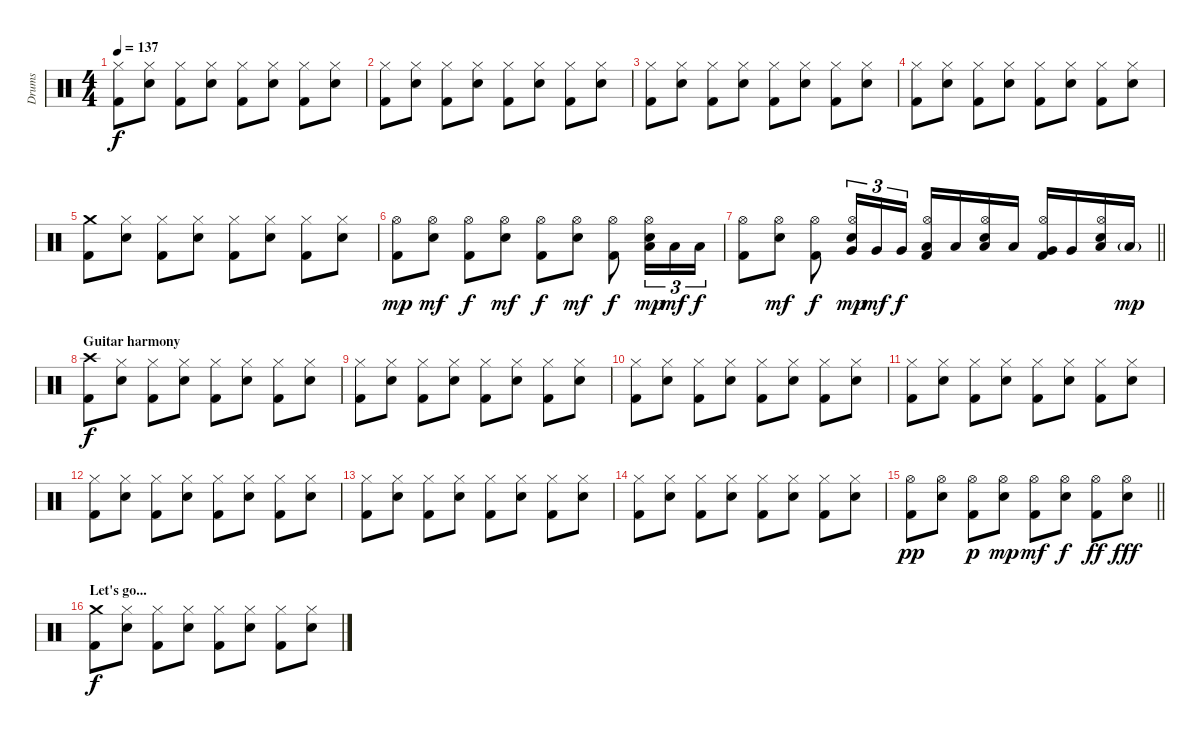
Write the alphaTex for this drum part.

\track ("Drums" "Drums") {instrument percussion}
\staff {score}
\articulation defaults
\ts (4 4)
\tempo 137
\clef neutral
\ks c
("Hi-Hat (closed)" "Kick (hit) 2").8{dy f} ("Hi-Hat (closed)" "Snare (hit) 2").8 ("Hi-Hat (closed)" "Kick (hit) 2").8 ("Hi-Hat (closed)" "Snare (hit) 2").8 ("Hi-Hat (closed)" "Kick (hit) 2").8 ("Hi-Hat (closed)" "Snare (hit) 2").8 ("Hi-Hat (closed)" "Kick (hit) 2").8 ("Hi-Hat (closed)" "Snare (hit) 2").8 |
("Hi-Hat (closed)" "Kick (hit) 2").8 ("Hi-Hat (closed)" "Snare (hit) 2").8 ("Hi-Hat (closed)" "Kick (hit) 2").8 ("Hi-Hat (closed)" "Snare (hit) 2").8 ("Hi-Hat (closed)" "Kick (hit) 2").8 ("Hi-Hat (closed)" "Snare (hit) 2").8 ("Hi-Hat (closed)" "Kick (hit) 2").8 ("Hi-Hat (closed)" "Snare (hit) 2").8 |
("Hi-Hat (closed)" "Kick (hit) 2").8 ("Hi-Hat (closed)" "Snare (hit) 2").8 ("Hi-Hat (closed)" "Kick (hit) 2").8 ("Hi-Hat (closed)" "Snare (hit) 2").8 ("Hi-Hat (closed)" "Kick (hit) 2").8 ("Hi-Hat (closed)" "Snare (hit) 2").8 ("Hi-Hat (closed)" "Kick (hit) 2").8 ("Hi-Hat (closed)" "Snare (hit) 2").8 |
("Hi-Hat (closed)" "Kick (hit) 2").8 ("Hi-Hat (closed)" "Snare (hit) 2").8 ("Hi-Hat (closed)" "Kick (hit) 2").8 ("Hi-Hat (closed)" "Snare (hit) 2").8 ("Hi-Hat (closed)" "Kick (hit) 2").8 ("Hi-Hat (closed)" "Snare (hit) 2").8 ("Hi-Hat (closed)" "Kick (hit) 2").8 ("Hi-Hat (closed)" "Snare (hit) 2").8 |
("Crash medium (hit)" "Kick (hit) 2").8 ("Hi-Hat (closed)" "Snare (hit) 2").8 ("Hi-Hat (closed)" "Kick (hit) 2").8 ("Hi-Hat (closed)" "Snare (hit) 2").8 ("Hi-Hat (closed)" "Kick (hit) 2").8 ("Hi-Hat (closed)" "Snare (hit) 2").8 ("Hi-Hat (closed)" "Kick (hit) 2").8 ("Hi-Hat (closed)" "Snare (hit) 2").8 |
("Hi-Hat (open)" "Kick (hit) 2").8{dy mp} ("Hi-Hat (open)" "Snare (hit) 2").8{dy mf} ("Hi-Hat (open)" "Kick (hit) 2").8{dy f} ("Hi-Hat (open)" "Snare (hit) 2").8{dy mf} ("Hi-Hat (open)" "Kick (hit) 2").8{dy f} ("Hi-Hat (open)" "Snare (hit) 2").8{dy mf} ("Hi-Hat (open)" "Kick (hit) 2").8{dy f} ("Hi-Hat (open)" "Low Floor Tom (hit)" "Snare (hit) 2").16{tu (3 2) dy mp} "Low Floor Tom (hit)".16{tu (3 2) dy mf} "Low Floor Tom (hit)".16{tu (3 2) dy f} |
\barLineRight lightlight
("Hi-Hat (open)" "Kick (hit) 2").8 ("Hi-Hat (open)" "Snare (hit) 2").8{dy mf} ("Hi-Hat (open)" "Kick (hit) 2").8{dy f} ("Hi-Hat (open)" "Very Low Tom (hit)" "Snare (hit) 2").16{tu (3 2) dy mp} "Very Low Tom (hit)".16{tu (3 2) dy mf} "Very Low Tom (hit)".16{tu (3 2) dy f} ("Hi-Hat (open)" "Low Tom (hit)" "Kick (hit) 2").16 "Low Tom (hit)".16 ("Hi-Hat (open)" "Low Tom (hit)" "Snare (hit) 2").16 "Low Tom (hit)".16 ("Hi-Hat (open)" "Very Low Tom (hit)" "Kick (hit) 2").16 "Very Low Tom (hit)".16 ("Hi-Hat (open)" "Low Floor Tom (hit)" "Snare (hit) 2").16 "Low Floor Tom (hit)"{g}.16{dy mp} |
\section ("" "Guitar harmony")
("Crash high (hit)" "Kick (hit) 2").8{dy f} ("Hi-Hat (closed)" "Snare (hit) 2").8 ("Hi-Hat (closed)" "Kick (hit) 2").8 ("Hi-Hat (closed)" "Snare (hit) 2").8 ("Hi-Hat (closed)" "Kick (hit) 2").8 ("Hi-Hat (closed)" "Snare (hit) 2").8 ("Hi-Hat (closed)" "Kick (hit) 2").8 ("Hi-Hat (closed)" "Snare (hit) 2").8 |
("Hi-Hat (closed)" "Kick (hit) 2").8 ("Hi-Hat (closed)" "Snare (hit) 2").8 ("Hi-Hat (closed)" "Kick (hit) 2").8 ("Hi-Hat (closed)" "Snare (hit) 2").8 ("Hi-Hat (closed)" "Kick (hit) 2").8 ("Hi-Hat (closed)" "Snare (hit) 2").8 ("Hi-Hat (closed)" "Kick (hit) 2").8 ("Hi-Hat (closed)" "Snare (hit) 2").8 |
("Hi-Hat (closed)" "Kick (hit) 2").8 ("Hi-Hat (closed)" "Snare (hit) 2").8 ("Hi-Hat (closed)" "Kick (hit) 2").8 ("Hi-Hat (closed)" "Snare (hit) 2").8 ("Hi-Hat (closed)" "Kick (hit) 2").8 ("Hi-Hat (closed)" "Snare (hit) 2").8 ("Hi-Hat (closed)" "Kick (hit) 2").8 ("Hi-Hat (closed)" "Snare (hit) 2").8 |
("Hi-Hat (closed)" "Kick (hit) 2").8 ("Hi-Hat (closed)" "Snare (hit) 2").8 ("Hi-Hat (closed)" "Kick (hit) 2").8 ("Hi-Hat (closed)" "Snare (hit) 2").8 ("Hi-Hat (closed)" "Kick (hit) 2").8 ("Hi-Hat (closed)" "Snare (hit) 2").8 ("Hi-Hat (closed)" "Kick (hit) 2").8 ("Hi-Hat (closed)" "Snare (hit) 2").8 |
("Hi-Hat (closed)" "Kick (hit) 2").8 ("Hi-Hat (closed)" "Snare (hit) 2").8 ("Hi-Hat (closed)" "Kick (hit) 2").8 ("Hi-Hat (closed)" "Snare (hit) 2").8 ("Hi-Hat (closed)" "Kick (hit) 2").8 ("Hi-Hat (closed)" "Snare (hit) 2").8 ("Hi-Hat (closed)" "Kick (hit) 2").8 ("Hi-Hat (closed)" "Snare (hit) 2").8 |
("Hi-Hat (closed)" "Kick (hit) 2").8 ("Hi-Hat (closed)" "Snare (hit) 2").8 ("Hi-Hat (closed)" "Kick (hit) 2").8 ("Hi-Hat (closed)" "Snare (hit) 2").8 ("Hi-Hat (closed)" "Kick (hit) 2").8 ("Hi-Hat (closed)" "Snare (hit) 2").8 ("Hi-Hat (closed)" "Kick (hit) 2").8 ("Hi-Hat (closed)" "Snare (hit) 2").8 |
("Hi-Hat (closed)" "Kick (hit) 2").8 ("Hi-Hat (closed)" "Snare (hit) 2").8 ("Hi-Hat (closed)" "Kick (hit) 2").8 ("Hi-Hat (closed)" "Snare (hit) 2").8 ("Hi-Hat (closed)" "Kick (hit) 2").8 ("Hi-Hat (closed)" "Snare (hit) 2").8 ("Hi-Hat (closed)" "Kick (hit) 2").8 ("Hi-Hat (closed)" "Snare (hit) 2").8 |
\barLineRight lightlight
("Hi-Hat (open)" "Kick (hit) 2").8{dy pp} ("Hi-Hat (open)" "Snare (hit) 2").8 ("Hi-Hat (open)" "Kick (hit) 2").8{dy p} ("Hi-Hat (open)" "Snare (hit) 2").8{dy mp} ("Hi-Hat (open)" "Kick (hit) 2").8{dy mf} ("Hi-Hat (open)" "Snare (hit) 2").8{dy f} ("Hi-Hat (open)" "Kick (hit) 2").8{dy ff} ("Hi-Hat (open)" "Snare (hit) 2").8{dy fff} |
\section ("" "Let's go...")
("Crash medium (hit)" "Kick (hit) 2").8{dy f} ("Hi-Hat (closed)" "Snare (hit) 2").8 ("Hi-Hat (closed)" "Kick (hit) 2").8 ("Hi-Hat (closed)" "Snare (hit) 2").8 ("Hi-Hat (closed)" "Kick (hit) 2").8 ("Hi-Hat (closed)" "Snare (hit) 2").8 ("Hi-Hat (closed)" "Kick (hit) 2").8 ("Hi-Hat (closed)" "Snare (hit) 2").8
